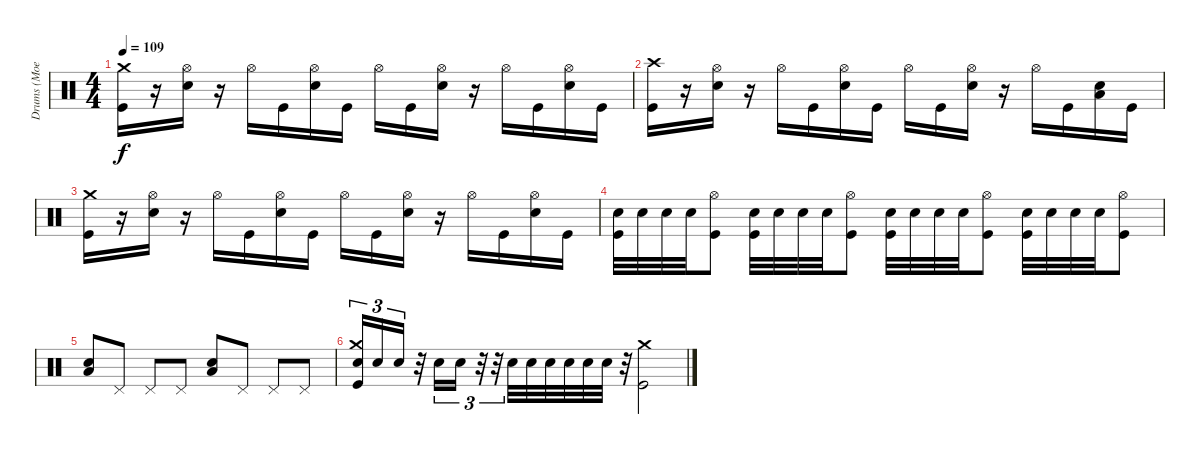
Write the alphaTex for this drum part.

\track ("Drums (Moe)" "Drums (Moe") {instrument percussion}
\staff {score}
\articulation defaults
\ts (4 4)
\tempo 109
\clef neutral
\ks c
("Kick (hit)" "Crash medium (hit)").16{dy f} r.16 ("Snare (hit) 2" "Hi-Hat (open)").16 r.16 "Hi-Hat (open)".16 "Kick (hit)".16 ("Snare (hit) 2" "Hi-Hat (open)").16 "Kick (hit)".16 "Hi-Hat (open)".16 "Kick (hit)".16 ("Snare (hit) 2" "Hi-Hat (open)").16 r.16 "Hi-Hat (open)".16 "Kick (hit)".16 ("Snare (hit) 2" "Hi-Hat (open)").16 "Kick (hit)".16 |
("Kick (hit)" "Crash high (hit)").16 r.16 ("Snare (hit) 2" "Hi-Hat (open)").16 r.16 "Hi-Hat (open)".16 "Kick (hit)".16 ("Snare (hit) 2" "Hi-Hat (open)").16 "Kick (hit)".16 "Hi-Hat (open)".16 "Kick (hit)".16 ("Snare (hit) 2" "Hi-Hat (open)").16 r.16 "Hi-Hat (open)".16 "Kick (hit)".16 ("Snare (hit) 2" "Low Floor Tom (hit)").16 "Kick (hit)".16 |
("Kick (hit)" "Crash medium (hit)").16 r.16 ("Snare (hit) 2" "Hi-Hat (open)").16 r.16 "Hi-Hat (open)".16 "Kick (hit)".16 ("Snare (hit) 2" "Hi-Hat (open)").16 "Kick (hit)".16 "Hi-Hat (open)".16 "Kick (hit)".16 ("Snare (hit) 2" "Hi-Hat (open)").16 r.16 "Hi-Hat (open)".16 "Kick (hit)".16 ("Snare (hit) 2" "Hi-Hat (open)").16 "Kick (hit)".16 |
("Kick (hit)" "Snare (hit) 2").32 "Snare (hit) 2".32 "Snare (hit) 2".32 "Snare (hit) 2".32 ("Kick (hit)" "Hi-Hat (open)").8 ("Kick (hit)" "Snare (hit) 2").32 "Snare (hit) 2".32 "Snare (hit) 2".32 "Snare (hit) 2".32 ("Kick (hit)" "Hi-Hat (open)").8 ("Kick (hit)" "Snare (hit) 2").32 "Snare (hit) 2".32 "Snare (hit) 2".32 "Snare (hit) 2".32 ("Kick (hit)" "Hi-Hat (open)").8 ("Kick (hit)" "Snare (hit) 2").32 "Snare (hit) 2".32 "Snare (hit) 2".32 "Snare (hit) 2".32 ("Kick (hit)" "Hi-Hat (open)").8 |
("Snare (hit) 2" "Low Floor Tom (hit)").8 "Pedal Hi-Hat (hit)".8 "Pedal Hi-Hat (hit)".8 "Pedal Hi-Hat (hit)".8 ("Snare (hit) 2" "Low Floor Tom (hit)").8 "Pedal Hi-Hat (hit)".8 "Pedal Hi-Hat (hit)".8 "Pedal Hi-Hat (hit)".8 |
("Kick (hit)" "Snare (hit) 2" "Crash medium (hit)").16{tu (3 2)} "Snare (hit) 2".16{tu (3 2)} "Snare (hit) 2".16{tu (3 2)} r.32 "Snare (hit) 2".16{tu (3 2)} "Snare (hit) 2".16{tu (3 2)} r.32{tu (3 2)} r.32{tu (3 2)} "Snare (hit) 2".32 "Snare (hit) 2".32 "Snare (hit) 2".32 "Snare (hit) 2".32 "Snare (hit) 2".32 "Snare (hit) 2".32 r.32 ("Kick (hit)" "Crash medium (hit)").2
